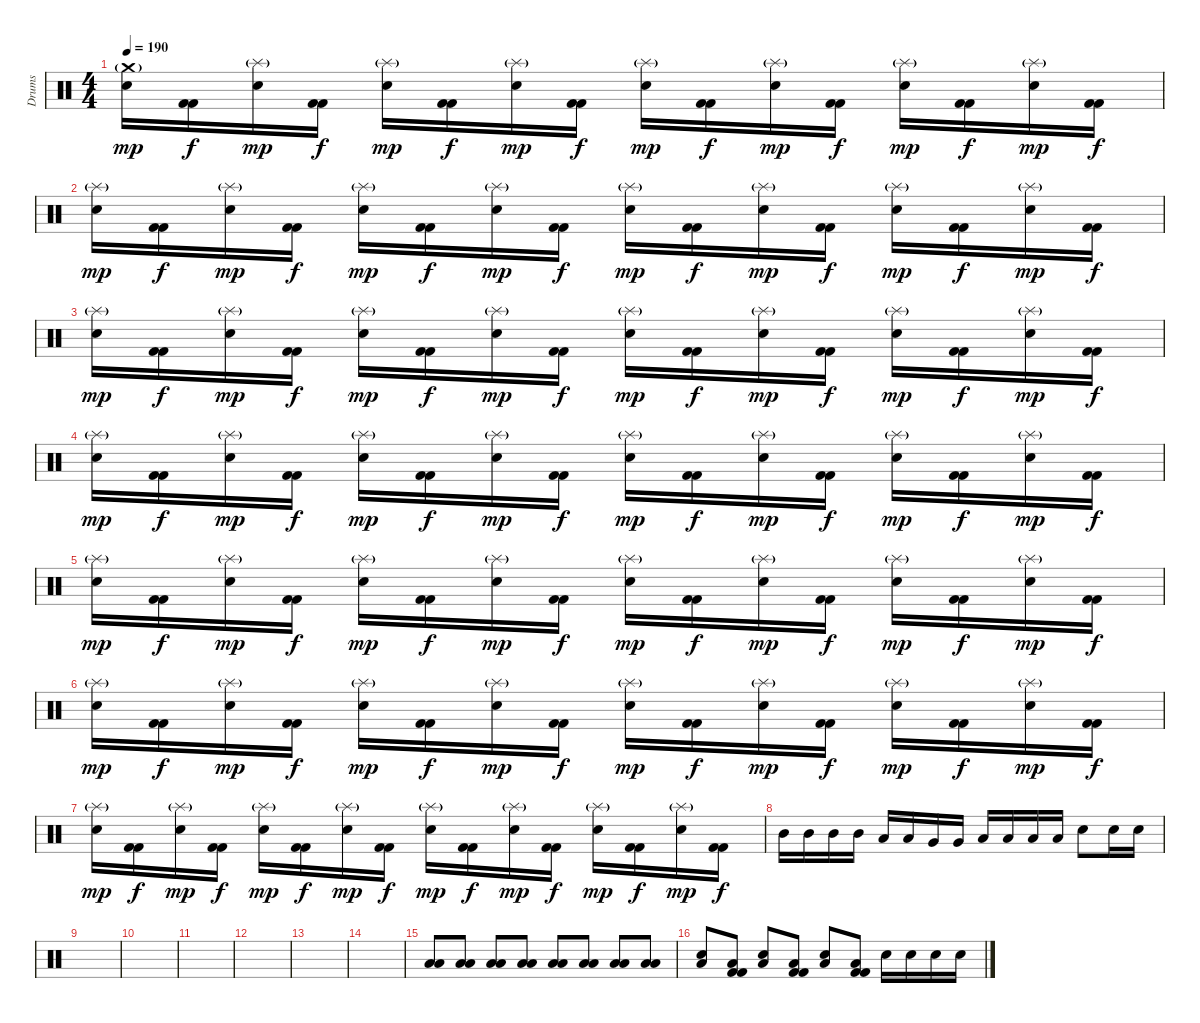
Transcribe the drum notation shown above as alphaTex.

\track ("Drums" "Drums") {instrument percussion}
\staff {score}
\articulation defaults
\ts (4 4)
\tempo 190
\clef neutral
\ks c
("Crash medium (hit)"{g} "Electric Snare (hit)").16{dy mp} ("Kick (hit) 2" "Kick (hit) 2").16{dy f} ("Splash (hit)"{g} "Electric Snare (hit)").16{dy mp} ("Kick (hit) 2" "Kick (hit) 2").16{dy f} ("Splash (hit)"{g} "Electric Snare (hit)").16{dy mp} ("Kick (hit) 2" "Kick (hit) 2").16{dy f} ("Splash (hit)"{g} "Electric Snare (hit)").16{dy mp} ("Kick (hit) 2" "Kick (hit) 2").16{dy f} ("Splash (hit)"{g} "Electric Snare (hit)").16{dy mp} ("Kick (hit) 2" "Kick (hit) 2").16{dy f} ("Splash (hit)"{g} "Electric Snare (hit)").16{dy mp} ("Kick (hit) 2" "Kick (hit) 2").16{dy f} ("Splash (hit)"{g} "Electric Snare (hit)").16{dy mp} ("Kick (hit) 2" "Kick (hit) 2").16{dy f} ("Splash (hit)"{g} "Electric Snare (hit)").16{dy mp} ("Kick (hit) 2" "Kick (hit) 2").16{dy f} |
("Splash (hit)"{g} "Electric Snare (hit)").16{dy mp} ("Kick (hit) 2" "Kick (hit) 2").16{dy f} ("Splash (hit)"{g} "Electric Snare (hit)").16{dy mp} ("Kick (hit) 2" "Kick (hit) 2").16{dy f} ("Splash (hit)"{g} "Electric Snare (hit)").16{dy mp} ("Kick (hit) 2" "Kick (hit) 2").16{dy f} ("Splash (hit)"{g} "Electric Snare (hit)").16{dy mp} ("Kick (hit) 2" "Kick (hit) 2").16{dy f} ("Splash (hit)"{g} "Electric Snare (hit)").16{dy mp} ("Kick (hit) 2" "Kick (hit) 2").16{dy f} ("Splash (hit)"{g} "Electric Snare (hit)").16{dy mp} ("Kick (hit) 2" "Kick (hit) 2").16{dy f} ("Splash (hit)"{g} "Electric Snare (hit)").16{dy mp} ("Kick (hit) 2" "Kick (hit) 2").16{dy f} ("Splash (hit)"{g} "Electric Snare (hit)").16{dy mp} ("Kick (hit) 2" "Kick (hit) 2").16{dy f} |
("Splash (hit)"{g} "Electric Snare (hit)").16{dy mp} ("Kick (hit) 2" "Kick (hit) 2").16{dy f} ("Splash (hit)"{g} "Electric Snare (hit)").16{dy mp} ("Kick (hit) 2" "Kick (hit) 2").16{dy f} ("Splash (hit)"{g} "Electric Snare (hit)").16{dy mp} ("Kick (hit) 2" "Kick (hit) 2").16{dy f} ("Splash (hit)"{g} "Electric Snare (hit)").16{dy mp} ("Kick (hit) 2" "Kick (hit) 2").16{dy f} ("Splash (hit)"{g} "Electric Snare (hit)").16{dy mp} ("Kick (hit) 2" "Kick (hit) 2").16{dy f} ("Splash (hit)"{g} "Electric Snare (hit)").16{dy mp} ("Kick (hit) 2" "Kick (hit) 2").16{dy f} ("Splash (hit)"{g} "Electric Snare (hit)").16{dy mp} ("Kick (hit) 2" "Kick (hit) 2").16{dy f} ("Splash (hit)"{g} "Electric Snare (hit)").16{dy mp} ("Kick (hit) 2" "Kick (hit) 2").16{dy f} |
("Splash (hit)"{g} "Electric Snare (hit)").16{dy mp} ("Kick (hit) 2" "Kick (hit) 2").16{dy f} ("Splash (hit)"{g} "Electric Snare (hit)").16{dy mp} ("Kick (hit) 2" "Kick (hit) 2").16{dy f} ("Splash (hit)"{g} "Electric Snare (hit)").16{dy mp} ("Kick (hit) 2" "Kick (hit) 2").16{dy f} ("Splash (hit)"{g} "Electric Snare (hit)").16{dy mp} ("Kick (hit) 2" "Kick (hit) 2").16{dy f} ("Splash (hit)"{g} "Electric Snare (hit)").16{dy mp} ("Kick (hit) 2" "Kick (hit) 2").16{dy f} ("Splash (hit)"{g} "Electric Snare (hit)").16{dy mp} ("Kick (hit) 2" "Kick (hit) 2").16{dy f} ("Splash (hit)"{g} "Electric Snare (hit)").16{dy mp} ("Kick (hit) 2" "Kick (hit) 2").16{dy f} ("Splash (hit)"{g} "Electric Snare (hit)").16{dy mp} ("Kick (hit) 2" "Kick (hit) 2").16{dy f} |
("Splash (hit)"{g} "Electric Snare (hit)").16{dy mp} ("Kick (hit) 2" "Kick (hit) 2").16{dy f} ("Splash (hit)"{g} "Electric Snare (hit)").16{dy mp} ("Kick (hit) 2" "Kick (hit) 2").16{dy f} ("Splash (hit)"{g} "Electric Snare (hit)").16{dy mp} ("Kick (hit) 2" "Kick (hit) 2").16{dy f} ("Splash (hit)"{g} "Electric Snare (hit)").16{dy mp} ("Kick (hit) 2" "Kick (hit) 2").16{dy f} ("Splash (hit)"{g} "Electric Snare (hit)").16{dy mp} ("Kick (hit) 2" "Kick (hit) 2").16{dy f} ("Splash (hit)"{g} "Electric Snare (hit)").16{dy mp} ("Kick (hit) 2" "Kick (hit) 2").16{dy f} ("Splash (hit)"{g} "Electric Snare (hit)").16{dy mp} ("Kick (hit) 2" "Kick (hit) 2").16{dy f} ("Splash (hit)"{g} "Electric Snare (hit)").16{dy mp} ("Kick (hit) 2" "Kick (hit) 2").16{dy f} |
("Splash (hit)"{g} "Electric Snare (hit)").16{dy mp} ("Kick (hit) 2" "Kick (hit) 2").16{dy f} ("Splash (hit)"{g} "Electric Snare (hit)").16{dy mp} ("Kick (hit) 2" "Kick (hit) 2").16{dy f} ("Splash (hit)"{g} "Electric Snare (hit)").16{dy mp} ("Kick (hit) 2" "Kick (hit) 2").16{dy f} ("Splash (hit)"{g} "Electric Snare (hit)").16{dy mp} ("Kick (hit) 2" "Kick (hit) 2").16{dy f} ("Splash (hit)"{g} "Electric Snare (hit)").16{dy mp} ("Kick (hit) 2" "Kick (hit) 2").16{dy f} ("Splash (hit)"{g} "Electric Snare (hit)").16{dy mp} ("Kick (hit) 2" "Kick (hit) 2").16{dy f} ("Splash (hit)"{g} "Electric Snare (hit)").16{dy mp} ("Kick (hit) 2" "Kick (hit) 2").16{dy f} ("Splash (hit)"{g} "Electric Snare (hit)").16{dy mp} ("Kick (hit) 2" "Kick (hit) 2").16{dy f} |
("Splash (hit)"{g} "Electric Snare (hit)").16{dy mp} ("Kick (hit) 2" "Kick (hit) 2").16{dy f} ("Splash (hit)"{g} "Electric Snare (hit)").16{dy mp} ("Kick (hit) 2" "Kick (hit) 2").16{dy f} ("Splash (hit)"{g} "Electric Snare (hit)").16{dy mp} ("Kick (hit) 2" "Kick (hit) 2").16{dy f} ("Splash (hit)"{g} "Electric Snare (hit)").16{dy mp} ("Kick (hit) 2" "Kick (hit) 2").16{dy f} ("Splash (hit)"{g} "Electric Snare (hit)").16{dy mp} ("Kick (hit) 2" "Kick (hit) 2").16{dy f} ("Splash (hit)"{g} "Electric Snare (hit)").16{dy mp} ("Kick (hit) 2" "Kick (hit) 2").16{dy f} ("Splash (hit)"{g} "Electric Snare (hit)").16{dy mp} ("Kick (hit) 2" "Kick (hit) 2").16{dy f} ("Splash (hit)"{g} "Electric Snare (hit)").16{dy mp} ("Kick (hit) 2" "Kick (hit) 2").16{dy f} |
"Mid Tom (hit)".16 "Mid Tom (hit)".16 "Mid Tom (hit)".16 "Mid Tom (hit)".16 "Low Tom (hit)".16 "Low Tom (hit)".16 "Very Low Tom (hit)".16 "Very Low Tom (hit)".16 "Low Floor Tom (hit)".16 "Low Floor Tom (hit)".16 "Low Floor Tom (hit)".16 "Low Floor Tom (hit)".16 "Electric Snare (hit)".8 "Electric Snare (hit)".16 "Electric Snare (hit)".16 |
|
|
|
|
|
|
("Low Tom (hit)" "Low Floor Tom (hit)").8 ("Low Tom (hit)" "Low Floor Tom (hit)").8 ("Low Tom (hit)" "Low Floor Tom (hit)").8 ("Low Tom (hit)" "Low Floor Tom (hit)").8 ("Low Tom (hit)" "Low Floor Tom (hit)").8 ("Low Tom (hit)" "Low Floor Tom (hit)").8 ("Low Tom (hit)" "Low Floor Tom (hit)").8 ("Low Tom (hit)" "Low Floor Tom (hit)").8 |
("Low Floor Tom (hit)" "Electric Snare (hit)").8 ("Kick (hit) 2" "Low Floor Tom (hit)" "Kick (hit) 2").8 ("Low Floor Tom (hit)" "Electric Snare (hit)").8 ("Kick (hit) 2" "Low Floor Tom (hit)" "Kick (hit) 2").8 ("Low Floor Tom (hit)" "Electric Snare (hit)").8 ("Kick (hit) 2" "Low Floor Tom (hit)" "Kick (hit) 2").8 "Electric Snare (hit)".16 "Electric Snare (hit)".16 "Electric Snare (hit)".16 "Electric Snare (hit)".16
